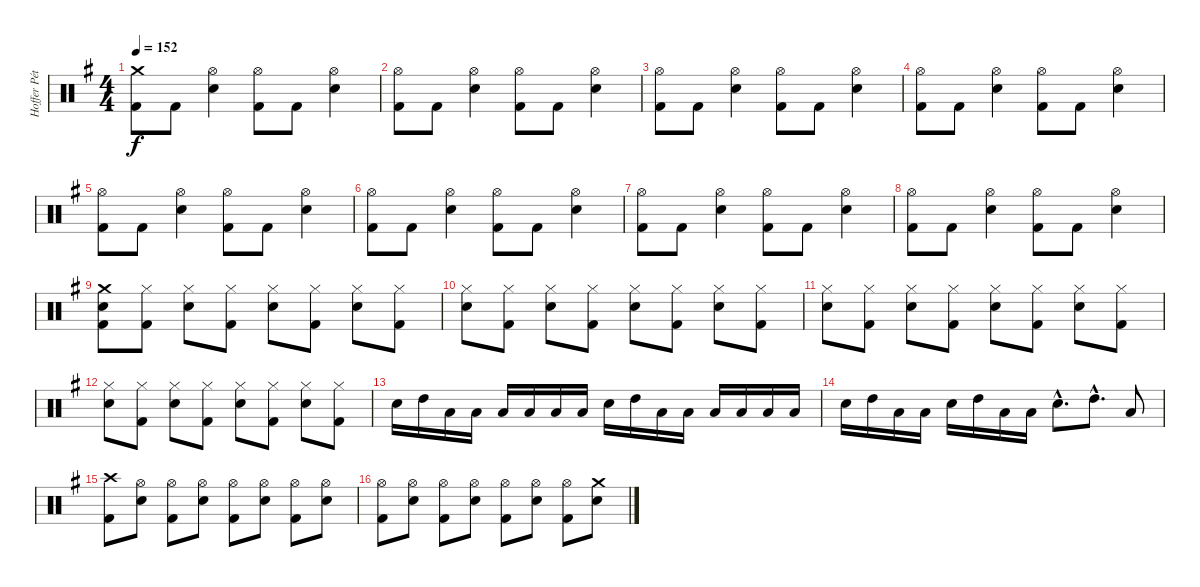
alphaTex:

\track ("Hoffer Péter" "Hoffer Pét") {instrument percussion}
\staff {score}
\articulation defaults
\ts (4 4)
\tempo 152
\clef neutral
\ks eminor
("Crash medium (hit)" "Kick (hit) 2").8{dy f} "Kick (hit) 2".8 ("Hi-Hat (open)" "Snare (hit) 2").4 ("Hi-Hat (open)" "Kick (hit) 2").8 "Kick (hit) 2".8 ("Hi-Hat (open)" "Snare (hit) 2").4 |
("Hi-Hat (open)" "Kick (hit) 2").8 "Kick (hit) 2".8 ("Hi-Hat (open)" "Snare (hit) 2").4 ("Hi-Hat (open)" "Kick (hit) 2").8 "Kick (hit) 2".8 ("Hi-Hat (open)" "Snare (hit) 2").4 |
("Hi-Hat (open)" "Kick (hit) 2").8 "Kick (hit) 2".8 ("Hi-Hat (open)" "Snare (hit) 2").4 ("Hi-Hat (open)" "Kick (hit) 2").8 "Kick (hit) 2".8 ("Hi-Hat (open)" "Snare (hit) 2").4 |
("Hi-Hat (open)" "Kick (hit) 2").8 "Kick (hit) 2".8 ("Hi-Hat (open)" "Snare (hit) 2").4 ("Hi-Hat (open)" "Kick (hit) 2").8 "Kick (hit) 2".8 ("Hi-Hat (open)" "Snare (hit) 2").4 |
("Hi-Hat (open)" "Kick (hit) 2").8 "Kick (hit) 2".8 ("Hi-Hat (open)" "Snare (hit) 2").4 ("Hi-Hat (open)" "Kick (hit) 2").8 "Kick (hit) 2".8 ("Hi-Hat (open)" "Snare (hit) 2").4 |
("Hi-Hat (open)" "Kick (hit) 2").8 "Kick (hit) 2".8 ("Hi-Hat (open)" "Snare (hit) 2").4 ("Hi-Hat (open)" "Kick (hit) 2").8 "Kick (hit) 2".8 ("Hi-Hat (open)" "Snare (hit) 2").4 |
("Hi-Hat (open)" "Kick (hit) 2").8 "Kick (hit) 2".8 ("Hi-Hat (open)" "Snare (hit) 2").4 ("Hi-Hat (open)" "Kick (hit) 2").8 "Kick (hit) 2".8 ("Hi-Hat (open)" "Snare (hit) 2").4 |
("Hi-Hat (open)" "Kick (hit) 2").8 "Kick (hit) 2".8 ("Hi-Hat (open)" "Snare (hit) 2").4 ("Hi-Hat (open)" "Kick (hit) 2").8 "Kick (hit) 2".8 ("Hi-Hat (open)" "Snare (hit) 2").4 |
("Crash medium (hit)" "Snare (hit) 2" "Kick (hit) 2").8 ("Hi-Hat (closed)" "Kick (hit) 2").8 ("Hi-Hat (closed)" "Snare (hit) 2").8 ("Hi-Hat (closed)" "Kick (hit) 2").8 ("Hi-Hat (closed)" "Snare (hit) 2").8 ("Hi-Hat (closed)" "Kick (hit) 2").8 ("Hi-Hat (closed)" "Snare (hit) 2").8 ("Hi-Hat (closed)" "Kick (hit) 2").8 |
("Hi-Hat (closed)" "Snare (hit) 2").8 ("Hi-Hat (closed)" "Kick (hit) 2").8 ("Hi-Hat (closed)" "Snare (hit) 2").8 ("Hi-Hat (closed)" "Kick (hit) 2").8 ("Hi-Hat (closed)" "Snare (hit) 2").8 ("Hi-Hat (closed)" "Kick (hit) 2").8 ("Hi-Hat (closed)" "Snare (hit) 2").8 ("Hi-Hat (closed)" "Kick (hit) 2").8 |
("Hi-Hat (closed)" "Snare (hit) 2").8 ("Hi-Hat (closed)" "Kick (hit) 2").8 ("Hi-Hat (closed)" "Snare (hit) 2").8 ("Hi-Hat (closed)" "Kick (hit) 2").8 ("Hi-Hat (closed)" "Snare (hit) 2").8 ("Hi-Hat (closed)" "Kick (hit) 2").8 ("Hi-Hat (closed)" "Snare (hit) 2").8 ("Hi-Hat (closed)" "Kick (hit) 2").8 |
("Hi-Hat (closed)" "Snare (hit) 2").8 ("Hi-Hat (closed)" "Kick (hit) 2").8 ("Hi-Hat (closed)" "Snare (hit) 2").8 ("Hi-Hat (closed)" "Kick (hit) 2").8 ("Hi-Hat (closed)" "Snare (hit) 2").8 ("Hi-Hat (closed)" "Kick (hit) 2").8 ("Hi-Hat (closed)" "Snare (hit) 2").8 ("Hi-Hat (closed)" "Kick (hit) 2").8 |
"Snare (hit) 2".16 "High Tom (hit)".16 "Low Tom (hit)".16 "Low Tom (hit)".16 "Low Tom (hit)".16 "Low Tom (hit)".16 "Low Tom (hit)".16 "Low Tom (hit)".16 "Snare (hit) 2".16 "High Tom (hit)".16 "Low Tom (hit)".16 "Low Tom (hit)".16 "Low Tom (hit)".16 "Low Tom (hit)".16 "Low Tom (hit)".16 "Low Tom (hit)".16 |
"Snare (hit) 2".16 "High Tom (hit)".16 "Low Tom (hit)".16 "Low Tom (hit)".16 "Snare (hit) 2".16 "High Tom (hit)".16 "Low Tom (hit)".16 "Low Tom (hit)".16 "Snare (hit) 2"{hac}.8{d} "High Tom (hit)"{hac}.8{d} "Low Tom (hit)".8 |
("Crash high (hit)" "Kick (hit) 2").8 ("Hi-Hat (open)" "Snare (hit) 2").8 ("Hi-Hat (open)" "Kick (hit) 2").8 ("Hi-Hat (open)" "Snare (hit) 2").8 ("Hi-Hat (open)" "Kick (hit) 2").8 ("Hi-Hat (open)" "Snare (hit) 2").8 ("Hi-Hat (open)" "Kick (hit) 2").8 ("Hi-Hat (open)" "Snare (hit) 2").8 |
("Hi-Hat (open)" "Kick (hit) 2").8 ("Hi-Hat (open)" "Snare (hit) 2").8 ("Hi-Hat (open)" "Kick (hit) 2").8 ("Hi-Hat (open)" "Snare (hit) 2").8 ("Hi-Hat (open)" "Kick (hit) 2").8 ("Hi-Hat (open)" "Snare (hit) 2").8 ("Hi-Hat (open)" "Kick (hit) 2").8 ("Crash medium (hit)" "Snare (hit) 2").8
